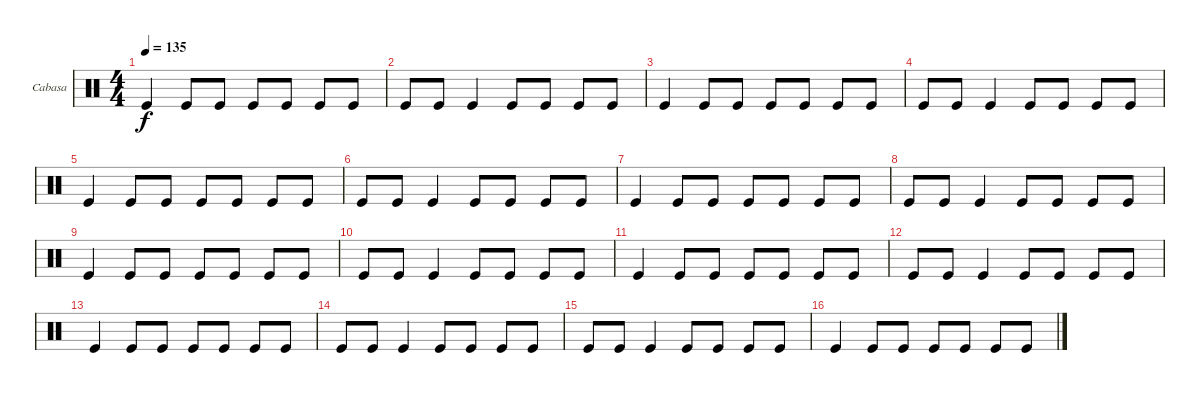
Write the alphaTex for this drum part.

\bracketExtendMode groupsimilarinstruments
\firstSystemTrackNameOrientation horizontal
\otherSystemsTrackNameOrientation horizontal
\track ("Cabasa" "Cabasa") {instrument percussion}
\staff {score}
\articulation defaults
\ts (4 4)
\tempo 135
\clef neutral
\ks c "Kick (hit)".4{dy f} "Kick (hit)".8 "Kick (hit)".8 "Kick (hit)".8 "Kick (hit)".8 "Kick (hit)".8 "Kick (hit)".8
|
"Kick (hit)".8 "Kick (hit)".8 "Kick (hit)".4 "Kick (hit)".8 "Kick (hit)".8 "Kick (hit)".8 "Kick (hit)".8 |
"Kick (hit)".4 "Kick (hit)".8 "Kick (hit)".8 "Kick (hit)".8 "Kick (hit)".8 "Kick (hit)".8 "Kick (hit)".8 |
"Kick (hit)".8 "Kick (hit)".8 "Kick (hit)".4 "Kick (hit)".8 "Kick (hit)".8 "Kick (hit)".8 "Kick (hit)".8 |
"Kick (hit)".4 "Kick (hit)".8 "Kick (hit)".8 "Kick (hit)".8 "Kick (hit)".8 "Kick (hit)".8 "Kick (hit)".8 |
"Kick (hit)".8 "Kick (hit)".8 "Kick (hit)".4 "Kick (hit)".8 "Kick (hit)".8 "Kick (hit)".8 "Kick (hit)".8 |
"Kick (hit)".4 "Kick (hit)".8 "Kick (hit)".8 "Kick (hit)".8 "Kick (hit)".8 "Kick (hit)".8 "Kick (hit)".8 |
"Kick (hit)".8 "Kick (hit)".8 "Kick (hit)".4 "Kick (hit)".8 "Kick (hit)".8 "Kick (hit)".8 "Kick (hit)".8 |
"Kick (hit)".4 "Kick (hit)".8 "Kick (hit)".8 "Kick (hit)".8 "Kick (hit)".8 "Kick (hit)".8 "Kick (hit)".8 |
"Kick (hit)".8 "Kick (hit)".8 "Kick (hit)".4 "Kick (hit)".8 "Kick (hit)".8 "Kick (hit)".8 "Kick (hit)".8 |
"Kick (hit)".4 "Kick (hit)".8 "Kick (hit)".8 "Kick (hit)".8 "Kick (hit)".8 "Kick (hit)".8 "Kick (hit)".8 |
"Kick (hit)".8 "Kick (hit)".8 "Kick (hit)".4 "Kick (hit)".8 "Kick (hit)".8 "Kick (hit)".8 "Kick (hit)".8 |
"Kick (hit)".4 "Kick (hit)".8 "Kick (hit)".8 "Kick (hit)".8 "Kick (hit)".8 "Kick (hit)".8 "Kick (hit)".8 |
"Kick (hit)".8 "Kick (hit)".8 "Kick (hit)".4 "Kick (hit)".8 "Kick (hit)".8 "Kick (hit)".8 "Kick (hit)".8 |
"Kick (hit)".8 "Kick (hit)".8 "Kick (hit)".4 "Kick (hit)".8 "Kick (hit)".8 "Kick (hit)".8 "Kick (hit)".8 |
"Kick (hit)".4 "Kick (hit)".8 "Kick (hit)".8 "Kick (hit)".8 "Kick (hit)".8 "Kick (hit)".8 "Kick (hit)".8
